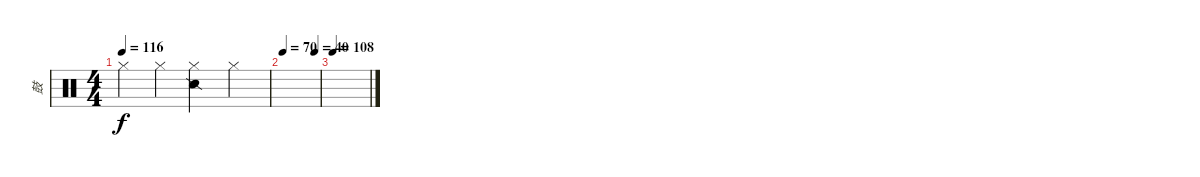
\track ("鼓" "鼓") {instrument percussion}
\staff {score}
\articulation defaults
\ts (4 4)
\tempo 116
\clef neutral
\ks c "Hi-Hat (closed)".4{dy f} "Hi-Hat (closed)".4
("Hi-Hat (closed)" "Snare (side stick) 2").4 "Hi-Hat (closed)".4 |
\tempo 70
\tempo (40 0.875)
|
\tempo 108
